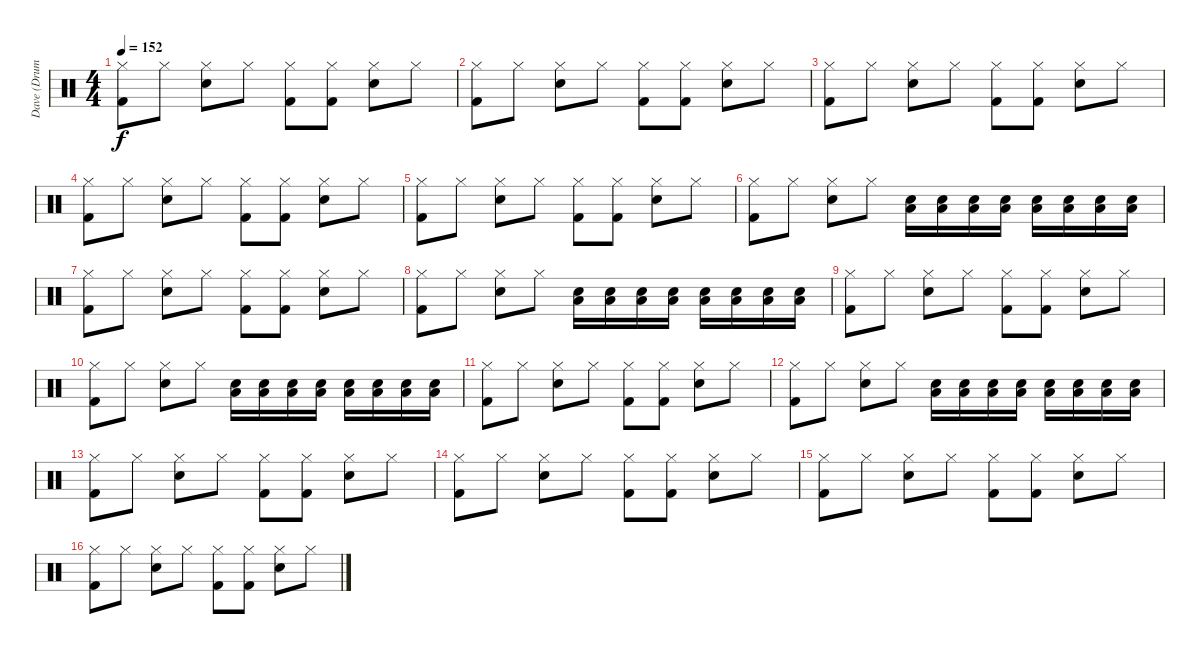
\track ("Dave (Drums)" "Dave (Drum") {instrument percussion}
\staff {score}
\articulation defaults
\ts (4 4)
\tempo 152
\clef neutral
\ks c
("Hi-Hat (closed)" "Kick (hit) 2").8{dy f} "Hi-Hat (closed)".8 ("Hi-Hat (closed)" "Snare (hit) 2").8 "Hi-Hat (closed)".8 ("Hi-Hat (closed)" "Kick (hit) 2").8 ("Hi-Hat (closed)" "Kick (hit) 2").8 ("Hi-Hat (closed)" "Snare (hit) 2").8 "Hi-Hat (closed)".8 |
("Hi-Hat (closed)" "Kick (hit) 2").8 "Hi-Hat (closed)".8 ("Hi-Hat (closed)" "Snare (hit) 2").8 "Hi-Hat (closed)".8 ("Hi-Hat (closed)" "Kick (hit) 2").8 ("Hi-Hat (closed)" "Kick (hit) 2").8 ("Hi-Hat (closed)" "Snare (hit) 2").8 "Hi-Hat (closed)".8 |
("Hi-Hat (closed)" "Kick (hit) 2").8 "Hi-Hat (closed)".8 ("Hi-Hat (closed)" "Snare (hit) 2").8 "Hi-Hat (closed)".8 ("Hi-Hat (closed)" "Kick (hit) 2").8 ("Hi-Hat (closed)" "Kick (hit) 2").8 ("Hi-Hat (closed)" "Snare (hit) 2").8 "Hi-Hat (closed)".8 |
("Hi-Hat (closed)" "Kick (hit) 2").8 "Hi-Hat (closed)".8 ("Hi-Hat (closed)" "Snare (hit) 2").8 "Hi-Hat (closed)".8 ("Hi-Hat (closed)" "Kick (hit) 2").8 ("Hi-Hat (closed)" "Kick (hit) 2").8 ("Hi-Hat (closed)" "Snare (hit) 2").8 "Hi-Hat (closed)".8 |
("Hi-Hat (closed)" "Kick (hit) 2").8 "Hi-Hat (closed)".8 ("Hi-Hat (closed)" "Snare (hit) 2").8 "Hi-Hat (closed)".8 ("Hi-Hat (closed)" "Kick (hit) 2").8 ("Hi-Hat (closed)" "Kick (hit) 2").8 ("Hi-Hat (closed)" "Snare (hit) 2").8 "Hi-Hat (closed)".8 |
("Hi-Hat (closed)" "Kick (hit) 2").8 "Hi-Hat (closed)".8 ("Hi-Hat (closed)" "Snare (hit) 2").8 "Hi-Hat (closed)".8 ("Low Tom (hit)" "Snare (hit) 2").16 ("Low Tom (hit)" "Snare (hit) 2").16 ("Low Tom (hit)" "Snare (hit) 2").16 ("Low Tom (hit)" "Snare (hit) 2").16 ("Low Tom (hit)" "Snare (hit) 2").16 ("Low Tom (hit)" "Snare (hit) 2").16 ("Low Tom (hit)" "Snare (hit) 2").16 ("Low Tom (hit)" "Snare (hit) 2").16 |
("Hi-Hat (closed)" "Kick (hit) 2").8 "Hi-Hat (closed)".8 ("Hi-Hat (closed)" "Snare (hit) 2").8 "Hi-Hat (closed)".8 ("Hi-Hat (closed)" "Kick (hit) 2").8 ("Hi-Hat (closed)" "Kick (hit) 2").8 ("Hi-Hat (closed)" "Snare (hit) 2").8 "Hi-Hat (closed)".8 |
("Hi-Hat (closed)" "Kick (hit) 2").8 "Hi-Hat (closed)".8 ("Hi-Hat (closed)" "Snare (hit) 2").8 "Hi-Hat (closed)".8 ("Low Tom (hit)" "Snare (hit) 2").16 ("Low Tom (hit)" "Snare (hit) 2").16 ("Low Tom (hit)" "Snare (hit) 2").16 ("Low Tom (hit)" "Snare (hit) 2").16 ("Low Tom (hit)" "Snare (hit) 2").16 ("Low Tom (hit)" "Snare (hit) 2").16 ("Low Tom (hit)" "Snare (hit) 2").16 ("Low Tom (hit)" "Snare (hit) 2").16 |
("Hi-Hat (closed)" "Kick (hit) 2").8 "Hi-Hat (closed)".8 ("Hi-Hat (closed)" "Snare (hit) 2").8 "Hi-Hat (closed)".8 ("Hi-Hat (closed)" "Kick (hit) 2").8 ("Hi-Hat (closed)" "Kick (hit) 2").8 ("Hi-Hat (closed)" "Snare (hit) 2").8 "Hi-Hat (closed)".8 |
("Hi-Hat (closed)" "Kick (hit) 2").8 "Hi-Hat (closed)".8 ("Hi-Hat (closed)" "Snare (hit) 2").8 "Hi-Hat (closed)".8 ("Low Tom (hit)" "Snare (hit) 2").16 ("Low Tom (hit)" "Snare (hit) 2").16 ("Low Tom (hit)" "Snare (hit) 2").16 ("Low Tom (hit)" "Snare (hit) 2").16 ("Low Tom (hit)" "Snare (hit) 2").16 ("Low Tom (hit)" "Snare (hit) 2").16 ("Low Tom (hit)" "Snare (hit) 2").16 ("Low Tom (hit)" "Snare (hit) 2").16 |
("Hi-Hat (closed)" "Kick (hit) 2").8 "Hi-Hat (closed)".8 ("Hi-Hat (closed)" "Snare (hit) 2").8 "Hi-Hat (closed)".8 ("Hi-Hat (closed)" "Kick (hit) 2").8 ("Hi-Hat (closed)" "Kick (hit) 2").8 ("Hi-Hat (closed)" "Snare (hit) 2").8 "Hi-Hat (closed)".8 |
("Hi-Hat (closed)" "Kick (hit) 2").8 "Hi-Hat (closed)".8 ("Hi-Hat (closed)" "Snare (hit) 2").8 "Hi-Hat (closed)".8 ("Low Tom (hit)" "Snare (hit) 2").16 ("Low Tom (hit)" "Snare (hit) 2").16 ("Low Tom (hit)" "Snare (hit) 2").16 ("Low Tom (hit)" "Snare (hit) 2").16 ("Low Tom (hit)" "Snare (hit) 2").16 ("Low Tom (hit)" "Snare (hit) 2").16 ("Low Tom (hit)" "Snare (hit) 2").16 ("Low Tom (hit)" "Snare (hit) 2").16 |
("Hi-Hat (closed)" "Kick (hit) 2").8 "Hi-Hat (closed)".8 ("Hi-Hat (closed)" "Snare (hit) 2").8 "Hi-Hat (closed)".8 ("Hi-Hat (closed)" "Kick (hit) 2").8 ("Hi-Hat (closed)" "Kick (hit) 2").8 ("Hi-Hat (closed)" "Snare (hit) 2").8 "Hi-Hat (closed)".8 |
("Hi-Hat (closed)" "Kick (hit) 2").8 "Hi-Hat (closed)".8 ("Hi-Hat (closed)" "Snare (hit) 2").8 "Hi-Hat (closed)".8 ("Hi-Hat (closed)" "Kick (hit) 2").8 ("Hi-Hat (closed)" "Kick (hit) 2").8 ("Hi-Hat (closed)" "Snare (hit) 2").8 "Hi-Hat (closed)".8 |
("Hi-Hat (closed)" "Kick (hit) 2").8 "Hi-Hat (closed)".8 ("Hi-Hat (closed)" "Snare (hit) 2").8 "Hi-Hat (closed)".8 ("Hi-Hat (closed)" "Kick (hit) 2").8 ("Hi-Hat (closed)" "Kick (hit) 2").8 ("Hi-Hat (closed)" "Snare (hit) 2").8 "Hi-Hat (closed)".8 |
("Hi-Hat (closed)" "Kick (hit) 2").8 "Hi-Hat (closed)".8 ("Hi-Hat (closed)" "Snare (hit) 2").8 "Hi-Hat (closed)".8 ("Hi-Hat (closed)" "Kick (hit) 2").8 ("Hi-Hat (closed)" "Kick (hit) 2").8 ("Hi-Hat (closed)" "Snare (hit) 2").8 "Hi-Hat (closed)".8
